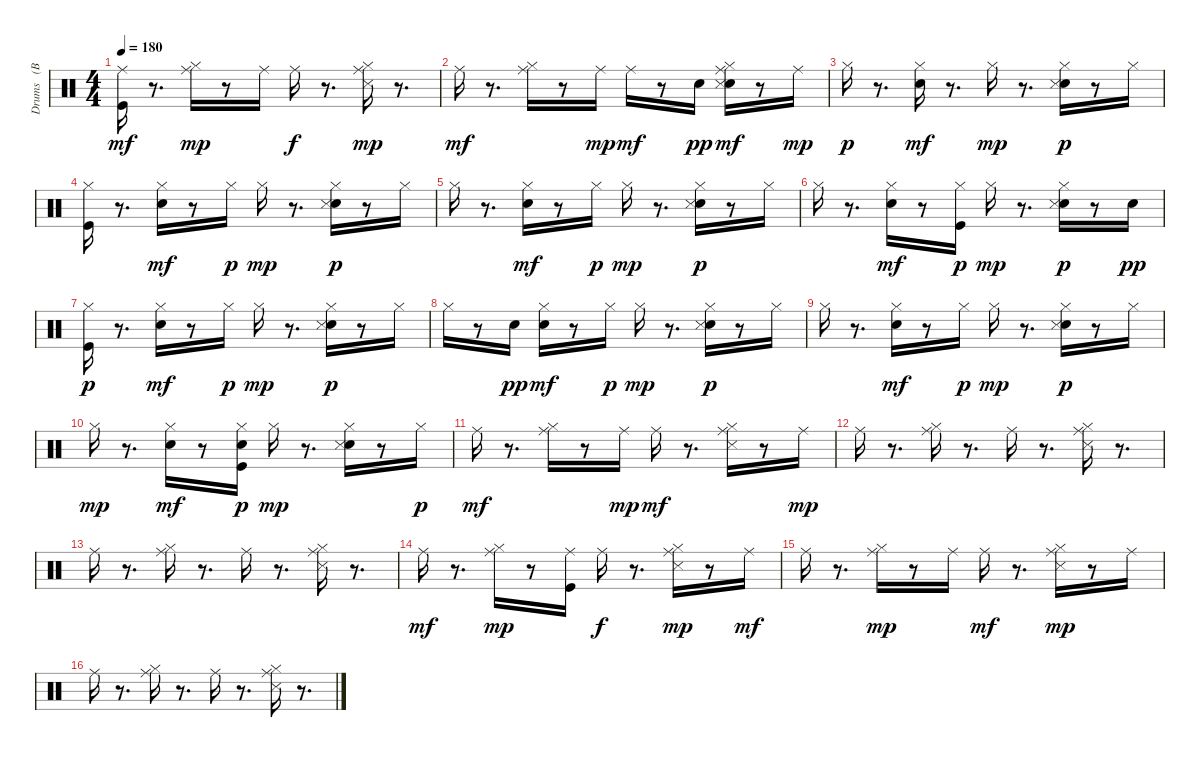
\track ("Drums   (BB)" "Drums   (B") {instrument percussion}
\staff {score}
\articulation defaults
\ts (4 4)
\tempo 180
\clef neutral
\ks c
("Kick (hit)" "Ride (middle)").16{dy mf} r.8{d} ("Hi-Hat (closed)" "Ride (middle)").16{dy mp} r.8 "Ride (middle)".16 "Ride (middle)".16{dy f} r.8{d} ("Hi-Hat (closed)" "Snare (side stick) 3" "Ride (middle)").16{dy mp} r.8{d} |
"Ride (middle)".16{dy mf} r.8{d} ("Hi-Hat (closed)" "Ride (middle)").16 r.8 "Ride (middle)".16{dy mp} "Ride (middle)".16{dy mf} r.8 "Snare (hit) 2".16{dy pp} ("Snare (hit) 2" "Hi-Hat (closed)" "Snare (side stick) 3" "Ride (middle)").16{dy mf} r.8 "Ride (middle)".16{dy mp} |
"Hi-Hat (closed)".16{dy p} r.8{d} ("Snare (hit) 2" "Hi-Hat (closed)").16{dy mf} r.8{d} "Hi-Hat (closed)".16{dy mp} r.8{d} ("Snare (hit) 2" "Hi-Hat (closed)" "Snare (side stick) 3").16{dy p} r.8 "Hi-Hat (closed)".16 |
("Kick (hit)" "Hi-Hat (closed)").16 r.8{d} ("Snare (hit) 2" "Hi-Hat (closed)").16{dy mf} r.8 "Hi-Hat (closed)".16{dy p} "Hi-Hat (closed)".16{dy mp} r.8{d} ("Snare (hit) 2" "Hi-Hat (closed)" "Snare (side stick) 3").16{dy p} r.8 "Hi-Hat (closed)".16 |
"Hi-Hat (closed)".16 r.8{d} ("Snare (hit) 2" "Hi-Hat (closed)").16{dy mf} r.8 "Hi-Hat (closed)".16{dy p} "Hi-Hat (closed)".16{dy mp} r.8{d} ("Snare (hit) 2" "Hi-Hat (closed)" "Snare (side stick) 3").16{dy p} r.8 "Hi-Hat (closed)".16 |
"Hi-Hat (closed)".16 r.8{d} ("Snare (hit) 2" "Hi-Hat (closed)").16{dy mf} r.8 ("Kick (hit)" "Hi-Hat (closed)").16{dy p} "Hi-Hat (closed)".16{dy mp} r.8{d} ("Snare (hit) 2" "Hi-Hat (closed)" "Snare (side stick) 3").16{dy p} r.8 "Snare (hit) 2".16{dy pp} |
("Kick (hit)" "Hi-Hat (closed)").16{dy p} r.8{d} ("Snare (hit) 2" "Hi-Hat (closed)").16{dy mf} r.8 "Hi-Hat (closed)".16{dy p} "Hi-Hat (closed)".16{dy mp} r.8{d} ("Snare (hit) 2" "Hi-Hat (closed)" "Snare (side stick) 3").16{dy p} r.8 "Hi-Hat (closed)".16 |
"Hi-Hat (closed)".16 r.8 "Snare (hit) 2".16{dy pp} ("Snare (hit) 2" "Hi-Hat (closed)").16{dy mf} r.8 "Hi-Hat (closed)".16{dy p} "Hi-Hat (closed)".16{dy mp} r.8{d} ("Snare (hit) 2" "Hi-Hat (closed)" "Snare (side stick) 3").16{dy p} r.8 "Hi-Hat (closed)".16 |
"Hi-Hat (closed)".16 r.8{d} ("Snare (hit) 2" "Hi-Hat (closed)").16{dy mf} r.8 "Hi-Hat (closed)".16{dy p} "Hi-Hat (closed)".16{dy mp} r.8{d} ("Snare (hit) 2" "Hi-Hat (closed)" "Snare (side stick) 3").16{dy p} r.8 "Hi-Hat (closed)".16 |
"Hi-Hat (closed)".16{dy mp} r.8{d} ("Snare (hit) 2" "Hi-Hat (closed)").16{dy mf} r.8 ("Kick (hit)" "Snare (hit) 2" "Hi-Hat (closed)").16{dy p} "Hi-Hat (closed)".16{dy mp} r.8{d} ("Snare (hit) 2" "Hi-Hat (closed)" "Snare (side stick) 3").16 r.8 "Hi-Hat (closed)".16{dy p} |
"Ride (middle)".16{dy mf} r.8{d} ("Hi-Hat (closed)" "Ride (middle)").16 r.8 "Ride (middle)".16{dy mp} "Ride (middle)".16{dy mf} r.8{d} ("Hi-Hat (closed)" "Snare (side stick) 3" "Ride (middle)").16 r.8 "Ride (middle)".16{dy mp} |
"Ride (middle)".16 r.8{d} ("Hi-Hat (closed)" "Ride (middle)").16 r.8{d} "Ride (middle)".16 r.8{d} ("Hi-Hat (closed)" "Snare (side stick) 3" "Ride (middle)").16 r.8{d} |
"Ride (middle)".16 r.8{d} ("Hi-Hat (closed)" "Ride (middle)").16 r.8{d} "Ride (middle)".16 r.8{d} ("Hi-Hat (closed)" "Snare (side stick) 3" "Ride (middle)").16 r.8{d} |
"Ride (middle)".16{dy mf} r.8{d} ("Hi-Hat (closed)" "Ride (middle)").16{dy mp} r.8 ("Kick (hit)" "Ride (middle)").16 "Ride (middle)".16{dy f} r.8{d} ("Hi-Hat (closed)" "Snare (side stick) 3" "Ride (middle)").16{dy mp} r.8 "Ride (middle)".16{dy mf} |
"Ride (middle)".16 r.8{d} ("Hi-Hat (closed)" "Ride (middle)").16{dy mp} r.8 "Ride (middle)".16 "Ride (middle)".16{dy mf} r.8{d} ("Hi-Hat (closed)" "Snare (side stick) 3" "Ride (middle)").16{dy mp} r.8 "Ride (middle)".16 |
"Ride (middle)".16 r.8{d} ("Hi-Hat (closed)" "Ride (middle)").16 r.8{d} "Ride (middle)".16 r.8{d} ("Hi-Hat (closed)" "Snare (side stick) 3" "Ride (middle)").16 r.8{d}
